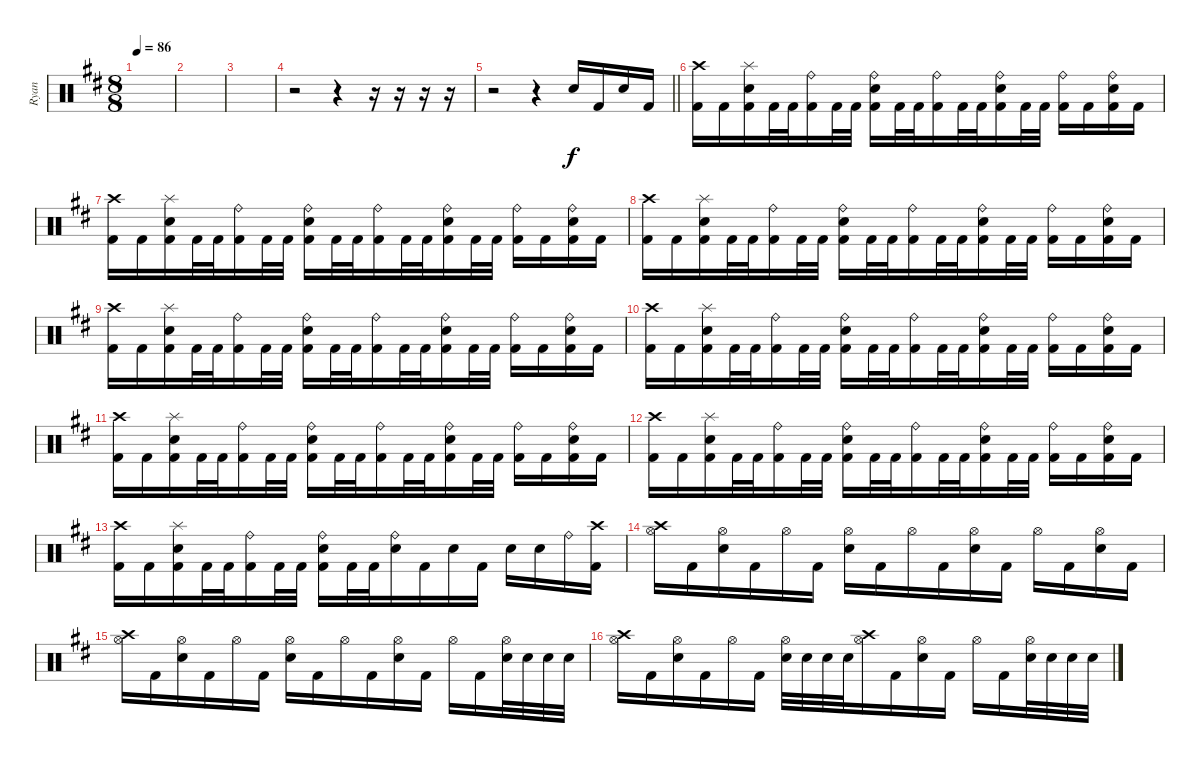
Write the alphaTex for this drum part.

\track ("Ryan" "Ryan") {instrument percussion}
\staff {score}
\articulation defaults
\ts (8 8)
\tempo 86
\clef neutral
\ks d
|
|
|
r.2 r.4 r.16 r.16 r.16 r.16 |
\barLineRight lightlight
r.2 r.4 "Snare (hit) 2".16 "Kick (hit) 2".16 "Snare (hit) 2".16 "Kick (hit) 2".16 |
("Crash high (hit)" "Kick (hit) 2").16 "Kick (hit) 2".16 ("Splash (hit)" "Snare (hit) 2" "Kick (hit) 2").16 "Kick (hit) 2".32 "Kick (hit) 2".32 ("Ride (bell)" "Kick (hit) 2").16 "Kick (hit) 2".32 "Kick (hit) 2".32 ("Ride (bell)" "Snare (hit) 2" "Kick (hit) 2").16 "Kick (hit) 2".32 "Kick (hit) 2".32 ("Ride (bell)" "Kick (hit) 2").16 "Kick (hit) 2".32 "Kick (hit) 2".32 ("Ride (bell)" "Snare (hit) 2" "Kick (hit) 2").16 "Kick (hit) 2".32 "Kick (hit) 2".32 ("Ride (bell)" "Kick (hit) 2").16 "Kick (hit) 2".16 ("Ride (bell)" "Snare (hit) 2" "Kick (hit) 2").16 "Kick (hit) 2".16 |
("Crash high (hit)" "Kick (hit) 2").16 "Kick (hit) 2".16 ("Splash (hit)" "Snare (hit) 2" "Kick (hit) 2").16 "Kick (hit) 2".32 "Kick (hit) 2".32 ("Ride (bell)" "Kick (hit) 2").16 "Kick (hit) 2".32 "Kick (hit) 2".32 ("Ride (bell)" "Snare (hit) 2" "Kick (hit) 2").16 "Kick (hit) 2".32 "Kick (hit) 2".32 ("Ride (bell)" "Kick (hit) 2").16 "Kick (hit) 2".32 "Kick (hit) 2".32 ("Ride (bell)" "Snare (hit) 2" "Kick (hit) 2").16 "Kick (hit) 2".32 "Kick (hit) 2".32 ("Ride (bell)" "Kick (hit) 2").16 "Kick (hit) 2".16 ("Ride (bell)" "Snare (hit) 2" "Kick (hit) 2").16 "Kick (hit) 2".16 |
("Crash high (hit)" "Kick (hit) 2").16 "Kick (hit) 2".16 ("Splash (hit)" "Snare (hit) 2" "Kick (hit) 2").16 "Kick (hit) 2".32 "Kick (hit) 2".32 ("Ride (bell)" "Kick (hit) 2").16 "Kick (hit) 2".32 "Kick (hit) 2".32 ("Ride (bell)" "Snare (hit) 2" "Kick (hit) 2").16 "Kick (hit) 2".32 "Kick (hit) 2".32 ("Ride (bell)" "Kick (hit) 2").16 "Kick (hit) 2".32 "Kick (hit) 2".32 ("Ride (bell)" "Snare (hit) 2" "Kick (hit) 2").16 "Kick (hit) 2".32 "Kick (hit) 2".32 ("Ride (bell)" "Kick (hit) 2").16 "Kick (hit) 2".16 ("Ride (bell)" "Snare (hit) 2" "Kick (hit) 2").16 "Kick (hit) 2".16 |
("Crash high (hit)" "Kick (hit) 2").16 "Kick (hit) 2".16 ("Splash (hit)" "Snare (hit) 2" "Kick (hit) 2").16 "Kick (hit) 2".32 "Kick (hit) 2".32 ("Ride (bell)" "Kick (hit) 2").16 "Kick (hit) 2".32 "Kick (hit) 2".32 ("Ride (bell)" "Snare (hit) 2" "Kick (hit) 2").16 "Kick (hit) 2".32 "Kick (hit) 2".32 ("Ride (bell)" "Kick (hit) 2").16 "Kick (hit) 2".32 "Kick (hit) 2".32 ("Ride (bell)" "Snare (hit) 2" "Kick (hit) 2").16 "Kick (hit) 2".32 "Kick (hit) 2".32 ("Ride (bell)" "Kick (hit) 2").16 "Kick (hit) 2".16 ("Ride (bell)" "Snare (hit) 2" "Kick (hit) 2").16 "Kick (hit) 2".16 |
("Crash high (hit)" "Kick (hit) 2").16 "Kick (hit) 2".16 ("Splash (hit)" "Snare (hit) 2" "Kick (hit) 2").16 "Kick (hit) 2".32 "Kick (hit) 2".32 ("Ride (bell)" "Kick (hit) 2").16 "Kick (hit) 2".32 "Kick (hit) 2".32 ("Ride (bell)" "Snare (hit) 2" "Kick (hit) 2").16 "Kick (hit) 2".32 "Kick (hit) 2".32 ("Ride (bell)" "Kick (hit) 2").16 "Kick (hit) 2".32 "Kick (hit) 2".32 ("Ride (bell)" "Snare (hit) 2" "Kick (hit) 2").16 "Kick (hit) 2".32 "Kick (hit) 2".32 ("Ride (bell)" "Kick (hit) 2").16 "Kick (hit) 2".16 ("Ride (bell)" "Snare (hit) 2" "Kick (hit) 2").16 "Kick (hit) 2".16 |
("Crash high (hit)" "Kick (hit) 2").16 "Kick (hit) 2".16 ("Splash (hit)" "Snare (hit) 2" "Kick (hit) 2").16 "Kick (hit) 2".32 "Kick (hit) 2".32 ("Ride (bell)" "Kick (hit) 2").16 "Kick (hit) 2".32 "Kick (hit) 2".32 ("Ride (bell)" "Snare (hit) 2" "Kick (hit) 2").16 "Kick (hit) 2".32 "Kick (hit) 2".32 ("Ride (bell)" "Kick (hit) 2").16 "Kick (hit) 2".32 "Kick (hit) 2".32 ("Ride (bell)" "Snare (hit) 2" "Kick (hit) 2").16 "Kick (hit) 2".32 "Kick (hit) 2".32 ("Ride (bell)" "Kick (hit) 2").16 "Kick (hit) 2".16 ("Ride (bell)" "Snare (hit) 2" "Kick (hit) 2").16 "Kick (hit) 2".16 |
("Crash high (hit)" "Kick (hit) 2").16 "Kick (hit) 2".16 ("Splash (hit)" "Snare (hit) 2" "Kick (hit) 2").16 "Kick (hit) 2".32 "Kick (hit) 2".32 ("Ride (bell)" "Kick (hit) 2").16 "Kick (hit) 2".32 "Kick (hit) 2".32 ("Ride (bell)" "Snare (hit) 2" "Kick (hit) 2").16 "Kick (hit) 2".32 "Kick (hit) 2".32 ("Ride (bell)" "Kick (hit) 2").16 "Kick (hit) 2".32 "Kick (hit) 2".32 ("Ride (bell)" "Snare (hit) 2" "Kick (hit) 2").16 "Kick (hit) 2".32 "Kick (hit) 2".32 ("Ride (bell)" "Kick (hit) 2").16 "Kick (hit) 2".16 ("Ride (bell)" "Snare (hit) 2" "Kick (hit) 2").16 "Kick (hit) 2".16 |
("Crash high (hit)" "Kick (hit) 2").16 "Kick (hit) 2".16 ("Splash (hit)" "Snare (hit) 2" "Kick (hit) 2").16 "Kick (hit) 2".32 "Kick (hit) 2".32 ("Ride (bell)" "Kick (hit) 2").16 "Kick (hit) 2".32 "Kick (hit) 2".32 ("Ride (bell)" "Snare (hit) 2" "Kick (hit) 2").16 "Kick (hit) 2".32 "Kick (hit) 2".32 ("Ride (bell)" "Snare (hit) 2").16 "Kick (hit) 2".16 "Snare (hit) 2".16 "Kick (hit) 2".16 "Snare (hit) 2".16 "Snare (hit) 2".16 "Ride (bell)".16 ("Crash high (hit)" "Kick (hit) 2").16 |
("Crash high (hit)" "Hi-Hat (open)").16 "Kick (hit) 2".16 ("Hi-Hat (open)" "Snare (hit) 2").16 "Kick (hit) 2".16 "Hi-Hat (open)".16 "Kick (hit) 2".16 ("Hi-Hat (open)" "Snare (hit) 2").16 "Kick (hit) 2".16 "Hi-Hat (open)".16 "Kick (hit) 2".16 ("Hi-Hat (open)" "Snare (hit) 2").16 "Kick (hit) 2".16 "Hi-Hat (open)".16 "Kick (hit) 2".16 ("Hi-Hat (open)" "Snare (hit) 2").16 "Kick (hit) 2".16 |
("Crash high (hit)" "Hi-Hat (open)").16 "Kick (hit) 2".16 ("Hi-Hat (open)" "Snare (hit) 2").16 "Kick (hit) 2".16 "Hi-Hat (open)".16 "Kick (hit) 2".16 ("Hi-Hat (open)" "Snare (hit) 2").16 "Kick (hit) 2".16 "Hi-Hat (open)".16 "Kick (hit) 2".16 ("Hi-Hat (open)" "Snare (hit) 2").16 "Kick (hit) 2".16 "Hi-Hat (open)".16 "Kick (hit) 2".16 ("Hi-Hat (open)" "Snare (hit) 2").32 "Snare (hit) 2".32 "Snare (hit) 2".32 "Snare (hit) 2".32 |
("Crash high (hit)" "Hi-Hat (open)").16 "Kick (hit) 2".16 ("Hi-Hat (open)" "Snare (hit) 2").16 "Kick (hit) 2".16 "Hi-Hat (open)".16 "Kick (hit) 2".16 ("Hi-Hat (open)" "Snare (hit) 2").32 "Snare (hit) 2".32 "Snare (hit) 2".32 "Snare (hit) 2".32 ("Crash high (hit)" "Hi-Hat (open)").16 "Kick (hit) 2".16 ("Hi-Hat (open)" "Snare (hit) 2").16 "Kick (hit) 2".16 "Hi-Hat (open)".16 "Kick (hit) 2".16 ("Hi-Hat (open)" "Snare (hit) 2").32 "Snare (hit) 2".32 "Snare (hit) 2".32 "Snare (hit) 2".32
